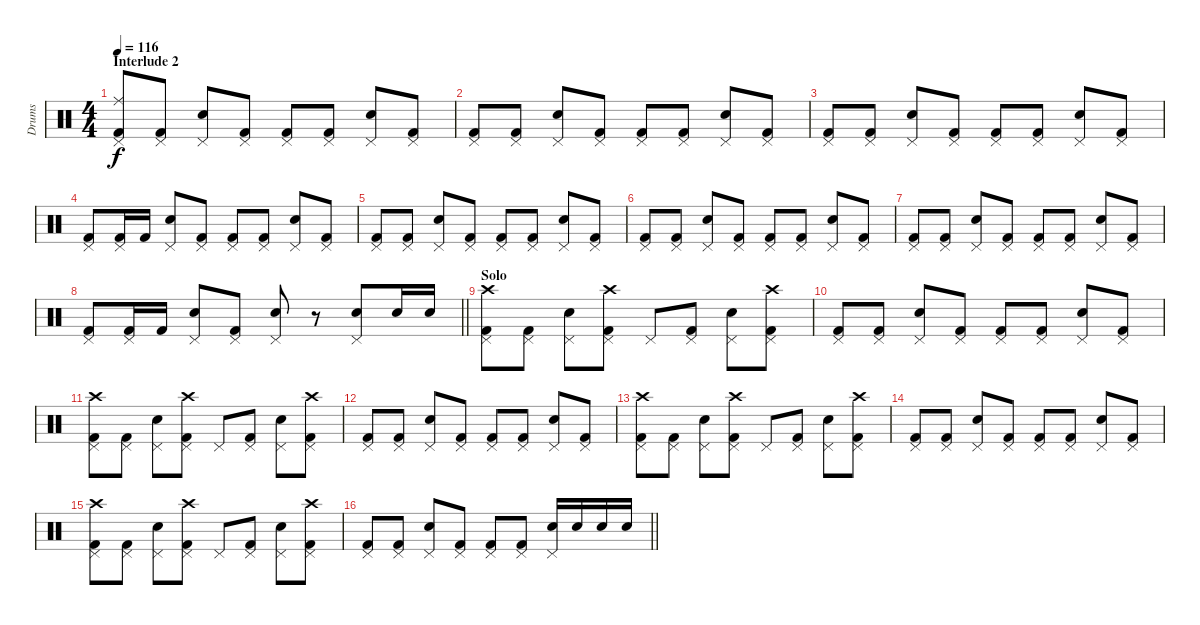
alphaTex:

\track ("Drums" "Drums") {instrument percussion}
\staff {score}
\articulation defaults
\ts (4 4)
\section ("" "Interlude 2")
\tempo 116
\clef neutral
\ks c
("Pedal Hi-Hat (hit)" "Ride (middle)" "Kick (hit) 2").8{dy f} ("Pedal Hi-Hat (hit)" "Kick (hit) 2").8 ("Pedal Hi-Hat (hit)" "Electric Snare (hit)").8 ("Pedal Hi-Hat (hit)" "Kick (hit) 2").8 ("Pedal Hi-Hat (hit)" "Kick (hit) 2").8 ("Pedal Hi-Hat (hit)" "Kick (hit) 2").8 ("Pedal Hi-Hat (hit)" "Electric Snare (hit)").8 ("Pedal Hi-Hat (hit)" "Kick (hit) 2").8 |
("Pedal Hi-Hat (hit)" "Kick (hit) 2").8 ("Pedal Hi-Hat (hit)" "Kick (hit) 2").8 ("Pedal Hi-Hat (hit)" "Electric Snare (hit)").8 ("Pedal Hi-Hat (hit)" "Kick (hit) 2").8 ("Pedal Hi-Hat (hit)" "Kick (hit) 2").8 ("Pedal Hi-Hat (hit)" "Kick (hit) 2").8 ("Pedal Hi-Hat (hit)" "Electric Snare (hit)").8 ("Pedal Hi-Hat (hit)" "Kick (hit) 2").8 |
("Pedal Hi-Hat (hit)" "Kick (hit) 2").8 ("Pedal Hi-Hat (hit)" "Kick (hit) 2").8 ("Pedal Hi-Hat (hit)" "Electric Snare (hit)").8 ("Pedal Hi-Hat (hit)" "Kick (hit) 2").8 ("Pedal Hi-Hat (hit)" "Kick (hit) 2").8 ("Pedal Hi-Hat (hit)" "Kick (hit) 2").8 ("Pedal Hi-Hat (hit)" "Electric Snare (hit)").8 ("Pedal Hi-Hat (hit)" "Kick (hit) 2").8 |
("Pedal Hi-Hat (hit)" "Kick (hit) 2").8 ("Pedal Hi-Hat (hit)" "Kick (hit) 2").16 "Kick (hit) 2".16 ("Pedal Hi-Hat (hit)" "Electric Snare (hit)").8 ("Pedal Hi-Hat (hit)" "Kick (hit) 2").8 ("Pedal Hi-Hat (hit)" "Kick (hit) 2").8 ("Pedal Hi-Hat (hit)" "Kick (hit) 2").8 ("Pedal Hi-Hat (hit)" "Electric Snare (hit)").8 ("Pedal Hi-Hat (hit)" "Kick (hit) 2").8 |
("Pedal Hi-Hat (hit)" "Kick (hit) 2").8 ("Pedal Hi-Hat (hit)" "Kick (hit) 2").8 ("Pedal Hi-Hat (hit)" "Electric Snare (hit)").8 ("Pedal Hi-Hat (hit)" "Kick (hit) 2").8 ("Pedal Hi-Hat (hit)" "Kick (hit) 2").8 ("Pedal Hi-Hat (hit)" "Kick (hit) 2").8 ("Pedal Hi-Hat (hit)" "Electric Snare (hit)").8 ("Pedal Hi-Hat (hit)" "Kick (hit) 2").8 |
("Pedal Hi-Hat (hit)" "Kick (hit) 2").8 ("Pedal Hi-Hat (hit)" "Kick (hit) 2").8 ("Pedal Hi-Hat (hit)" "Electric Snare (hit)").8 ("Pedal Hi-Hat (hit)" "Kick (hit) 2").8 ("Pedal Hi-Hat (hit)" "Kick (hit) 2").8 ("Pedal Hi-Hat (hit)" "Kick (hit) 2").8 ("Pedal Hi-Hat (hit)" "Electric Snare (hit)").8 ("Pedal Hi-Hat (hit)" "Kick (hit) 2").8 |
("Pedal Hi-Hat (hit)" "Kick (hit) 2").8 ("Pedal Hi-Hat (hit)" "Kick (hit) 2").8 ("Pedal Hi-Hat (hit)" "Electric Snare (hit)").8 ("Pedal Hi-Hat (hit)" "Kick (hit) 2").8 ("Pedal Hi-Hat (hit)" "Kick (hit) 2").8 ("Pedal Hi-Hat (hit)" "Kick (hit) 2").8 ("Pedal Hi-Hat (hit)" "Electric Snare (hit)").8 ("Pedal Hi-Hat (hit)" "Kick (hit) 2").8 |
\barLineRight lightlight
("Pedal Hi-Hat (hit)" "Kick (hit) 2").8 ("Pedal Hi-Hat (hit)" "Kick (hit) 2").16 "Kick (hit) 2".16 ("Pedal Hi-Hat (hit)" "Electric Snare (hit)").8 ("Pedal Hi-Hat (hit)" "Kick (hit) 2").8 ("Pedal Hi-Hat (hit)" "Electric Snare (hit)").8 r.8 ("Pedal Hi-Hat (hit)" "Electric Snare (hit)").8 "Electric Snare (hit)".16 "Electric Snare (hit)".16 |
\section ("" "Solo")
("Pedal Hi-Hat (hit)" "Crash high (hit)" "Kick (hit) 2").8 ("Pedal Hi-Hat (hit)" "Kick (hit) 2").8 ("Pedal Hi-Hat (hit)" "Electric Snare (hit)").8 ("Pedal Hi-Hat (hit)" "Crash high (hit)" "Kick (hit) 2").8 "Pedal Hi-Hat (hit)".8 ("Pedal Hi-Hat (hit)" "Kick (hit) 2").8 ("Pedal Hi-Hat (hit)" "Electric Snare (hit)").8 ("Pedal Hi-Hat (hit)" "Crash high (hit)" "Kick (hit) 2").8 |
("Pedal Hi-Hat (hit)" "Kick (hit) 2").8 ("Pedal Hi-Hat (hit)" "Kick (hit) 2").8 ("Pedal Hi-Hat (hit)" "Electric Snare (hit)").8 ("Pedal Hi-Hat (hit)" "Kick (hit) 2").8 ("Pedal Hi-Hat (hit)" "Kick (hit) 2").8 ("Pedal Hi-Hat (hit)" "Kick (hit) 2").8 ("Pedal Hi-Hat (hit)" "Electric Snare (hit)").8 ("Pedal Hi-Hat (hit)" "Kick (hit) 2").8 |
("Pedal Hi-Hat (hit)" "Crash high (hit)" "Kick (hit) 2").8 ("Pedal Hi-Hat (hit)" "Kick (hit) 2").8 ("Pedal Hi-Hat (hit)" "Electric Snare (hit)").8 ("Pedal Hi-Hat (hit)" "Crash high (hit)" "Kick (hit) 2").8 "Pedal Hi-Hat (hit)".8 ("Pedal Hi-Hat (hit)" "Kick (hit) 2").8 ("Pedal Hi-Hat (hit)" "Electric Snare (hit)").8 ("Pedal Hi-Hat (hit)" "Crash high (hit)" "Kick (hit) 2").8 |
("Pedal Hi-Hat (hit)" "Kick (hit) 2").8 ("Pedal Hi-Hat (hit)" "Kick (hit) 2").8 ("Pedal Hi-Hat (hit)" "Electric Snare (hit)").8 ("Pedal Hi-Hat (hit)" "Kick (hit) 2").8 ("Pedal Hi-Hat (hit)" "Kick (hit) 2").8 ("Pedal Hi-Hat (hit)" "Kick (hit) 2").8 ("Pedal Hi-Hat (hit)" "Electric Snare (hit)").8 ("Pedal Hi-Hat (hit)" "Kick (hit) 2").8 |
("Pedal Hi-Hat (hit)" "Crash high (hit)" "Kick (hit) 2").8 ("Pedal Hi-Hat (hit)" "Kick (hit) 2").8 ("Pedal Hi-Hat (hit)" "Electric Snare (hit)").8 ("Pedal Hi-Hat (hit)" "Crash high (hit)" "Kick (hit) 2").8 "Pedal Hi-Hat (hit)".8 ("Pedal Hi-Hat (hit)" "Kick (hit) 2").8 ("Pedal Hi-Hat (hit)" "Electric Snare (hit)").8 ("Pedal Hi-Hat (hit)" "Crash high (hit)" "Kick (hit) 2").8 |
("Pedal Hi-Hat (hit)" "Kick (hit) 2").8 ("Pedal Hi-Hat (hit)" "Kick (hit) 2").8 ("Pedal Hi-Hat (hit)" "Electric Snare (hit)").8 ("Pedal Hi-Hat (hit)" "Kick (hit) 2").8 ("Pedal Hi-Hat (hit)" "Kick (hit) 2").8 ("Pedal Hi-Hat (hit)" "Kick (hit) 2").8 ("Pedal Hi-Hat (hit)" "Electric Snare (hit)").8 ("Pedal Hi-Hat (hit)" "Kick (hit) 2").8 |
("Pedal Hi-Hat (hit)" "Crash high (hit)" "Kick (hit) 2").8 ("Pedal Hi-Hat (hit)" "Kick (hit) 2").8 ("Pedal Hi-Hat (hit)" "Electric Snare (hit)").8 ("Pedal Hi-Hat (hit)" "Crash high (hit)" "Kick (hit) 2").8 "Pedal Hi-Hat (hit)".8 ("Pedal Hi-Hat (hit)" "Kick (hit) 2").8 ("Pedal Hi-Hat (hit)" "Electric Snare (hit)").8 ("Pedal Hi-Hat (hit)" "Crash high (hit)" "Kick (hit) 2").8 |
\barLineRight lightlight
("Pedal Hi-Hat (hit)" "Kick (hit) 2").8 ("Pedal Hi-Hat (hit)" "Kick (hit) 2").8 ("Pedal Hi-Hat (hit)" "Electric Snare (hit)").8 ("Pedal Hi-Hat (hit)" "Kick (hit) 2").8 ("Pedal Hi-Hat (hit)" "Kick (hit) 2").8 ("Pedal Hi-Hat (hit)" "Kick (hit) 2").8 ("Pedal Hi-Hat (hit)" "Electric Snare (hit)").16 "Electric Snare (hit)".16 "Electric Snare (hit)".16 "Electric Snare (hit)".16
